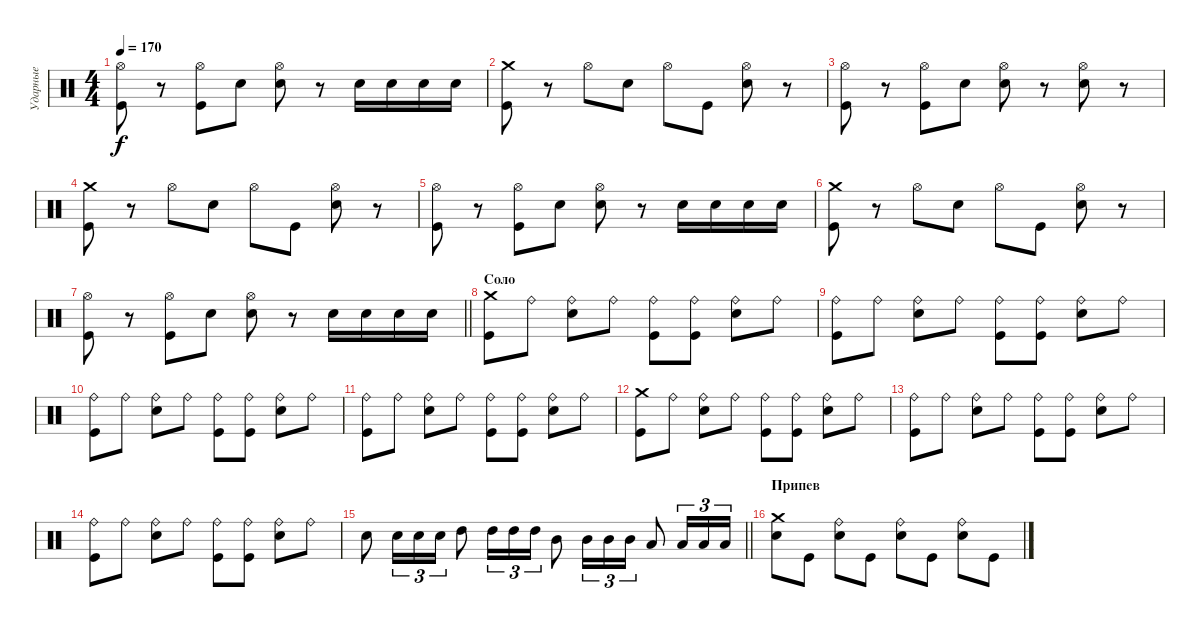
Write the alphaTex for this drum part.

\track ("Ударные" "Ударные") {instrument percussion}
\staff {score}
\articulation defaults
\ts (4 4)
\tempo 170
\clef neutral
\ks c
("Hi-Hat (open)" "Kick (hit)").8{dy f} r.8 ("Hi-Hat (open)" "Kick (hit)").8 "Electric Snare (hit)".8 ("Hi-Hat (open)" "Electric Snare (hit)").8 r.8 "Electric Snare (hit)".16 "Electric Snare (hit)".16 "Electric Snare (hit)".16 "Electric Snare (hit)".16 |
("Crash medium (hit)" "Kick (hit)").8 r.8 "Hi-Hat (open)".8 "Electric Snare (hit)".8 "Hi-Hat (open)".8 "Kick (hit)".8 ("Hi-Hat (open)" "Electric Snare (hit)").8 r.8 |
("Hi-Hat (open)" "Kick (hit)").8 r.8 ("Hi-Hat (open)" "Kick (hit)").8 "Electric Snare (hit)".8 ("Hi-Hat (open)" "Electric Snare (hit)").8 r.8 ("Hi-Hat (open)" "Electric Snare (hit)").8 r.8 |
("Crash medium (hit)" "Kick (hit)").8 r.8 "Hi-Hat (open)".8 "Electric Snare (hit)".8 "Hi-Hat (open)".8 "Kick (hit)".8 ("Hi-Hat (open)" "Electric Snare (hit)").8 r.8 |
("Hi-Hat (open)" "Kick (hit)").8 r.8 ("Hi-Hat (open)" "Kick (hit)").8 "Electric Snare (hit)".8 ("Hi-Hat (open)" "Electric Snare (hit)").8 r.8 "Electric Snare (hit)".16 "Electric Snare (hit)".16 "Electric Snare (hit)".16 "Electric Snare (hit)".16 |
("Crash medium (hit)" "Kick (hit)").8 r.8 "Hi-Hat (open)".8 "Electric Snare (hit)".8 "Hi-Hat (open)".8 "Kick (hit)".8 ("Hi-Hat (open)" "Electric Snare (hit)").8 r.8 |
\barLineRight lightlight
("Hi-Hat (open)" "Kick (hit)").8 r.8 ("Hi-Hat (open)" "Kick (hit)").8 "Electric Snare (hit)".8 ("Hi-Hat (open)" "Electric Snare (hit)").8 r.8 "Electric Snare (hit)".16 "Electric Snare (hit)".16 "Electric Snare (hit)".16 "Electric Snare (hit)".16 |
\section ("" "Соло")
("Crash medium (hit)" "Kick (hit)").8 "Ride (bell)".8 ("Ride (bell)" "Electric Snare (hit)").8 "Ride (bell)".8 ("Ride (bell)" "Kick (hit)").8 ("Ride (bell)" "Kick (hit)").8 ("Ride (bell)" "Electric Snare (hit)").8 "Ride (bell)".8 |
("Ride (bell)" "Kick (hit)").8 "Ride (bell)".8 ("Ride (bell)" "Electric Snare (hit)").8 "Ride (bell)".8 ("Ride (bell)" "Kick (hit)").8 ("Ride (bell)" "Kick (hit)").8 ("Ride (bell)" "Electric Snare (hit)").8 "Ride (bell)".8 |
("Ride (bell)" "Kick (hit)").8 "Ride (bell)".8 ("Ride (bell)" "Electric Snare (hit)").8 "Ride (bell)".8 ("Ride (bell)" "Kick (hit)").8 ("Ride (bell)" "Kick (hit)").8 ("Ride (bell)" "Electric Snare (hit)").8 "Ride (bell)".8 |
("Ride (bell)" "Kick (hit)").8 "Ride (bell)".8 ("Ride (bell)" "Electric Snare (hit)").8 "Ride (bell)".8 ("Ride (bell)" "Kick (hit)").8 ("Ride (bell)" "Kick (hit)").8 ("Ride (bell)" "Electric Snare (hit)").8 "Ride (bell)".8 |
("Crash medium (hit)" "Kick (hit)").8 "Ride (bell)".8 ("Ride (bell)" "Electric Snare (hit)").8 "Ride (bell)".8 ("Ride (bell)" "Kick (hit)").8 ("Ride (bell)" "Kick (hit)").8 ("Ride (bell)" "Electric Snare (hit)").8 "Ride (bell)".8 |
("Ride (bell)" "Kick (hit)").8 "Ride (bell)".8 ("Ride (bell)" "Electric Snare (hit)").8 "Ride (bell)".8 ("Ride (bell)" "Kick (hit)").8 ("Ride (bell)" "Kick (hit)").8 ("Ride (bell)" "Electric Snare (hit)").8 "Ride (bell)".8 |
("Ride (bell)" "Kick (hit)").8 "Ride (bell)".8 ("Ride (bell)" "Electric Snare (hit)").8 "Ride (bell)".8 ("Ride (bell)" "Kick (hit)").8 ("Ride (bell)" "Kick (hit)").8 ("Ride (bell)" "Electric Snare (hit)").8 "Ride (bell)".8 |
\barLineRight lightlight "Electric Snare (hit)".8 "Electric Snare (hit)".16{tu (3 2)} "Electric Snare (hit)".16{tu (3 2)} "Electric Snare (hit)".16{tu (3 2)} "High Tom (hit)".8 "High Tom (hit)".16{tu (3 2)} "High Tom (hit)".16{tu (3 2)} "High Tom (hit)".16{tu (3 2)} "Mid Tom (hit)".8 "Mid Tom (hit)".16{tu (3 2)} "Mid Tom (hit)".16{tu (3 2)} "Mid Tom (hit)".16{tu (3 2)} "Low Tom (hit)".8 "Low Tom (hit)".16{tu (3 2)} "Low Tom (hit)".16{tu (3 2)} "Low Tom (hit)".16{tu (3 2)}
|
\section ("" "Припев")
("Crash medium (hit)" "Electric Snare (hit)").8 "Kick (hit)".8 ("Ride (bell)" "Electric Snare (hit)").8 "Kick (hit)".8 ("Ride (bell)" "Electric Snare (hit)").8 "Kick (hit)".8 ("Ride (bell)" "Electric Snare (hit)").8 "Kick (hit)".8
